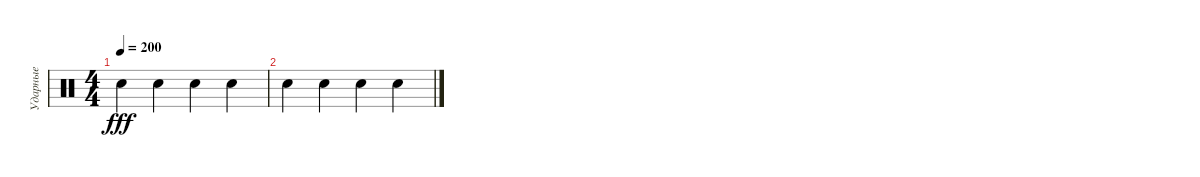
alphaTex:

\track ("Ударные" "Ударные") {instrument percussion}
\staff {score}
\articulation defaults
\ts (4 4)
\tempo 200
\clef neutral
\ks c "Hand Clap (hit)".4{dy fff} "Hand Clap (hit)".4 "Hand Clap (hit)".4 "Hand Clap (hit)".4
|
"Hand Clap (hit)".4 "Hand Clap (hit)".4 "Hand Clap (hit)".4 "Hand Clap (hit)".4
